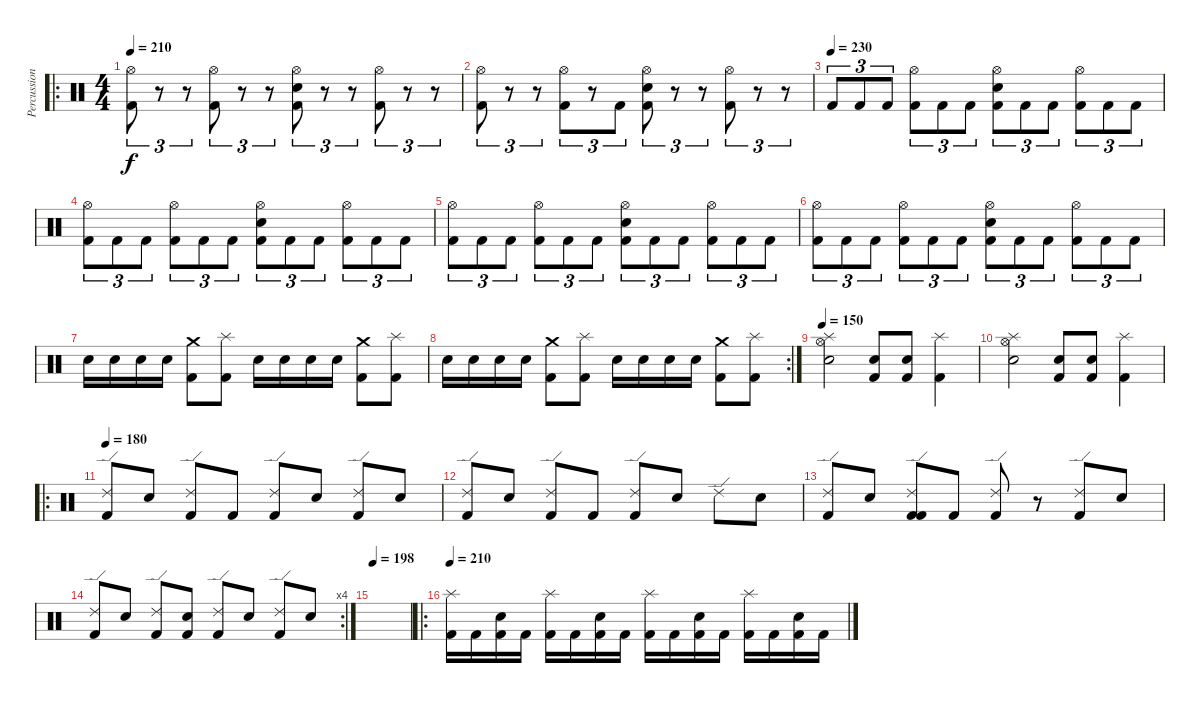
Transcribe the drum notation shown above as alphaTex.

\track ("Percussion" "Percussion") {instrument percussion}
\staff {score}
\articulation defaults
\ro
\ts (4 4)
\tempo 210
\clef neutral
\ks c
("Hi-Hat (open)" "Kick (hit) 2").8{tu (3 2) dy f} r.8{tu (3 2)} r.8{tu (3 2)} ("Hi-Hat (open)" "Kick (hit) 2").8{tu (3 2)} r.8{tu (3 2)} r.8{tu (3 2)} ("Hi-Hat (open)" "Snare (hit) 2" "Kick (hit) 2").8{tu (3 2)} r.8{tu (3 2)} r.8{tu (3 2)} ("Hi-Hat (open)" "Kick (hit) 2").8{tu (3 2)} r.8{tu (3 2)} r.8{tu (3 2)} |
("Hi-Hat (open)" "Kick (hit) 2").8{tu (3 2)} r.8{tu (3 2)} r.8{tu (3 2)} ("Hi-Hat (open)" "Kick (hit) 2").8{tu (3 2)} r.8{tu (3 2)} "Kick (hit) 2".8{tu (3 2)} ("Hi-Hat (open)" "Snare (hit) 2" "Kick (hit) 2").8{tu (3 2)} r.8{tu (3 2)} r.8{tu (3 2)} ("Hi-Hat (open)" "Kick (hit) 2").8{tu (3 2)} r.8{tu (3 2)} r.8{tu (3 2)} |
\tempo (230)
"Kick (hit) 2".8{tu (3 2)} "Kick (hit) 2".8{tu (3 2)} "Kick (hit) 2".8{tu (3 2)} ("Hi-Hat (open)" "Kick (hit) 2").8{tu (3 2)} "Kick (hit) 2".8{tu (3 2)} "Kick (hit) 2".8{tu (3 2)} ("Hi-Hat (open)" "Snare (hit) 2" "Kick (hit) 2").8{tu (3 2)} "Kick (hit) 2".8{tu (3 2)} "Kick (hit) 2".8{tu (3 2)} ("Hi-Hat (open)" "Kick (hit) 2").8{tu (3 2)} "Kick (hit) 2".8{tu (3 2)} "Kick (hit) 2".8{tu (3 2)} |
("Hi-Hat (open)" "Kick (hit) 2").8{tu (3 2)} "Kick (hit) 2".8{tu (3 2)} "Kick (hit) 2".8{tu (3 2)} ("Hi-Hat (open)" "Kick (hit) 2").8{tu (3 2)} "Kick (hit) 2".8{tu (3 2)} "Kick (hit) 2".8{tu (3 2)} ("Hi-Hat (open)" "Snare (hit) 2" "Kick (hit) 2").8{tu (3 2)} "Kick (hit) 2".8{tu (3 2)} "Kick (hit) 2".8{tu (3 2)} ("Hi-Hat (open)" "Kick (hit) 2").8{tu (3 2)} "Kick (hit) 2".8{tu (3 2)} "Kick (hit) 2".8{tu (3 2)} |
("Hi-Hat (open)" "Kick (hit) 2").8{tu (3 2)} "Kick (hit) 2".8{tu (3 2)} "Kick (hit) 2".8{tu (3 2)} ("Hi-Hat (open)" "Kick (hit) 2").8{tu (3 2)} "Kick (hit) 2".8{tu (3 2)} "Kick (hit) 2".8{tu (3 2)} ("Hi-Hat (open)" "Snare (hit) 2" "Kick (hit) 2").8{tu (3 2)} "Kick (hit) 2".8{tu (3 2)} "Kick (hit) 2".8{tu (3 2)} ("Hi-Hat (open)" "Kick (hit) 2").8{tu (3 2)} "Kick (hit) 2".8{tu (3 2)} "Kick (hit) 2".8{tu (3 2)} |
("Hi-Hat (open)" "Kick (hit) 2").8{tu (3 2)} "Kick (hit) 2".8{tu (3 2)} "Kick (hit) 2".8{tu (3 2)} ("Hi-Hat (open)" "Kick (hit) 2").8{tu (3 2)} "Kick (hit) 2".8{tu (3 2)} "Kick (hit) 2".8{tu (3 2)} ("Hi-Hat (open)" "Snare (hit) 2" "Kick (hit) 2").8{tu (3 2)} "Kick (hit) 2".8{tu (3 2)} "Kick (hit) 2".8{tu (3 2)} ("Hi-Hat (open)" "Kick (hit) 2").8{tu (3 2)} "Kick (hit) 2".8{tu (3 2)} "Kick (hit) 2".8{tu (3 2)} |
"Snare (hit) 2".16 "Snare (hit) 2".16 "Snare (hit) 2".16 "Snare (hit) 2".16 ("Kick (hit) 2" "Crash medium (hit)").8 ("Kick (hit) 2" "Splash (hit)").8 "Snare (hit) 2".16 "Snare (hit) 2".16 "Snare (hit) 2".16 "Snare (hit) 2".16 ("Kick (hit) 2" "Crash medium (hit)").8 ("Kick (hit) 2" "Splash (hit)").8 |
\rc 2 "Snare (hit) 2".16 "Snare (hit) 2".16 "Snare (hit) 2".16 "Snare (hit) 2".16
("Kick (hit) 2" "Crash medium (hit)").8 ("Kick (hit) 2" "Splash (hit)").8 "Snare (hit) 2".16 "Snare (hit) 2".16 "Snare (hit) 2".16 "Snare (hit) 2".16 ("Kick (hit) 2" "Crash medium (hit)").8 ("Kick (hit) 2" "Splash (hit)").8 |
\tempo 150
("Splash (hit)" "Snare (hit) 2" "Hi-Hat (open)").2 ("Snare (hit) 2" "Kick (hit) 2").8 ("Snare (hit) 2" "Kick (hit) 2").8 ("Kick (hit) 2" "Splash (hit)").4 |
("Splash (hit)" "Snare (hit) 2" "Hi-Hat (open)").2 ("Snare (hit) 2" "Kick (hit) 2").8 ("Snare (hit) 2" "Kick (hit) 2").8 ("Kick (hit) 2" "Splash (hit)").4 |
\ro
\tempo 180
("Kick (hit) 2" "Ride (edge) 2").8 "Snare (hit) 2".8 ("Kick (hit) 2" "Ride (edge) 2").8 "Kick (hit) 2".8 ("Kick (hit) 2" "Ride (edge) 2").8 "Snare (hit) 2".8 ("Kick (hit) 2" "Ride (edge) 2").8 "Snare (hit) 2".8 |
("Kick (hit) 2" "Ride (edge) 2").8 "Snare (hit) 2".8 ("Kick (hit) 2" "Ride (edge) 2").8 "Kick (hit) 2".8 ("Kick (hit) 2" "Ride (edge) 2").8 "Snare (hit) 2".8 "Ride (edge) 2".8 "Snare (hit) 2".8 |
("Kick (hit) 2" "Ride (edge) 2").8 "Snare (hit) 2".8 ("Kick (hit) 2" "Kick (hit) 2" "Ride (edge) 2").8 "Kick (hit) 2".8 ("Kick (hit) 2" "Ride (edge) 2").8 r.8 ("Kick (hit) 2" "Ride (edge) 2").8 "Snare (hit) 2".8 |
\rc 4
("Kick (hit) 2" "Ride (edge) 2").8 "Snare (hit) 2".8 ("Kick (hit) 2" "Ride (edge) 2").8 ("Kick (hit) 2" "Snare (hit) 2").8 ("Kick (hit) 2" "Ride (edge) 2").8 "Snare (hit) 2".8 ("Kick (hit) 2" "Ride (edge) 2").8 "Snare (hit) 2".8 |
\tempo 198
|
\ro
\tempo 210
("Splash (hit)" "Kick (hit) 2").16 "Kick (hit) 2".16 ("Snare (hit) 2" "Kick (hit) 2").16 "Kick (hit) 2".16 ("Splash (hit)" "Kick (hit) 2").16 "Kick (hit) 2".16 ("Snare (hit) 2" "Kick (hit) 2").16 "Kick (hit) 2".16 ("Splash (hit)" "Kick (hit) 2").16 "Kick (hit) 2".16 ("Snare (hit) 2" "Kick (hit) 2").16 "Kick (hit) 2".16 ("Splash (hit)" "Kick (hit) 2").16 "Kick (hit) 2".16 ("Snare (hit) 2" "Kick (hit) 2").16 "Kick (hit) 2".16
